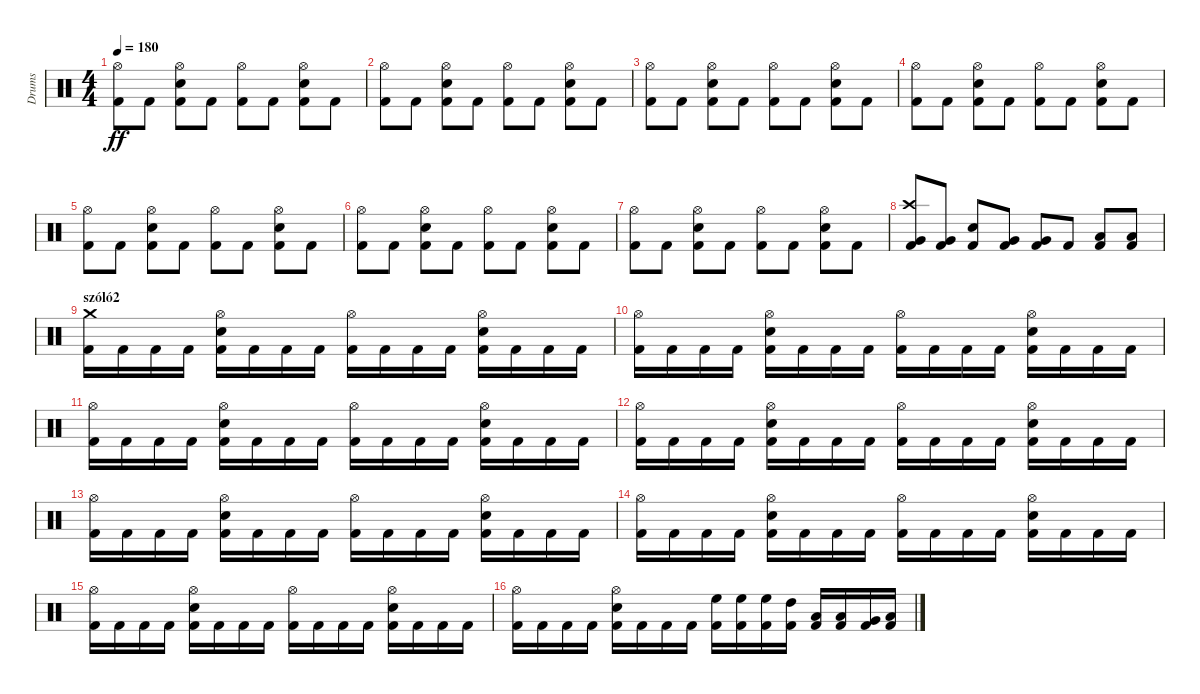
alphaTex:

\track ("Drums" "Drums") {instrument percussion}
\staff {score}
\articulation defaults
\ts (4 4)
\tempo 180
\clef neutral
\ks c
("Hi-Hat (open)" "Kick (hit) 2").8{dy ff} "Kick (hit) 2".8 ("Hi-Hat (open)" "Snare (hit) 2" "Kick (hit) 2").8 "Kick (hit) 2".8 ("Hi-Hat (open)" "Kick (hit) 2").8 "Kick (hit) 2".8 ("Hi-Hat (open)" "Snare (hit) 2" "Kick (hit) 2").8 "Kick (hit) 2".8 |
("Hi-Hat (open)" "Kick (hit) 2").8 "Kick (hit) 2".8 ("Hi-Hat (open)" "Snare (hit) 2" "Kick (hit) 2").8 "Kick (hit) 2".8 ("Hi-Hat (open)" "Kick (hit) 2").8 "Kick (hit) 2".8 ("Hi-Hat (open)" "Snare (hit) 2" "Kick (hit) 2").8 "Kick (hit) 2".8 |
("Hi-Hat (open)" "Kick (hit) 2").8 "Kick (hit) 2".8 ("Hi-Hat (open)" "Snare (hit) 2" "Kick (hit) 2").8 "Kick (hit) 2".8 ("Hi-Hat (open)" "Kick (hit) 2").8 "Kick (hit) 2".8 ("Hi-Hat (open)" "Snare (hit) 2" "Kick (hit) 2").8 "Kick (hit) 2".8 |
("Hi-Hat (open)" "Kick (hit) 2").8 "Kick (hit) 2".8 ("Hi-Hat (open)" "Snare (hit) 2" "Kick (hit) 2").8 "Kick (hit) 2".8 ("Hi-Hat (open)" "Kick (hit) 2").8 "Kick (hit) 2".8 ("Hi-Hat (open)" "Snare (hit) 2" "Kick (hit) 2").8 "Kick (hit) 2".8 |
("Hi-Hat (open)" "Kick (hit) 2").8 "Kick (hit) 2".8 ("Hi-Hat (open)" "Snare (hit) 2" "Kick (hit) 2").8 "Kick (hit) 2".8 ("Hi-Hat (open)" "Kick (hit) 2").8 "Kick (hit) 2".8 ("Hi-Hat (open)" "Snare (hit) 2" "Kick (hit) 2").8 "Kick (hit) 2".8 |
("Hi-Hat (open)" "Kick (hit) 2").8 "Kick (hit) 2".8 ("Hi-Hat (open)" "Snare (hit) 2" "Kick (hit) 2").8 "Kick (hit) 2".8 ("Hi-Hat (open)" "Kick (hit) 2").8 "Kick (hit) 2".8 ("Hi-Hat (open)" "Snare (hit) 2" "Kick (hit) 2").8 "Kick (hit) 2".8 |
("Hi-Hat (open)" "Kick (hit) 2").8 "Kick (hit) 2".8 ("Hi-Hat (open)" "Snare (hit) 2" "Kick (hit) 2").8 "Kick (hit) 2".8 ("Hi-Hat (open)" "Kick (hit) 2").8 "Kick (hit) 2".8 ("Hi-Hat (open)" "Snare (hit) 2" "Kick (hit) 2").8 "Kick (hit) 2".8 |
("Crash high (hit)" "Very Low Tom (hit)" "Kick (hit) 2").8 ("Very Low Tom (hit)" "Kick (hit) 2").8 ("Snare (hit) 2" "Kick (hit) 2").8 ("Very Low Tom (hit)" "Kick (hit) 2").8 ("Very Low Tom (hit)" "Kick (hit) 2").8 "Kick (hit) 2".8 ("Low Floor Tom (hit)" "Kick (hit) 2").8 ("Low Floor Tom (hit)" "Kick (hit) 2").8 |
\section ("" "szóló2")
("Crash medium (hit)" "Kick (hit) 2").16 "Kick (hit) 2".16 "Kick (hit) 2".16 "Kick (hit) 2".16 ("Hi-Hat (open)" "Snare (hit) 2" "Kick (hit) 2").16 "Kick (hit) 2".16 "Kick (hit) 2".16 "Kick (hit) 2".16 ("Hi-Hat (open)" "Kick (hit) 2").16 "Kick (hit) 2".16 "Kick (hit) 2".16 "Kick (hit) 2".16 ("Hi-Hat (open)" "Snare (hit) 2" "Kick (hit) 2").16 "Kick (hit) 2".16 "Kick (hit) 2".16 "Kick (hit) 2".16 |
("Hi-Hat (open)" "Kick (hit) 2").16 "Kick (hit) 2".16 "Kick (hit) 2".16 "Kick (hit) 2".16 ("Hi-Hat (open)" "Snare (hit) 2" "Kick (hit) 2").16 "Kick (hit) 2".16 "Kick (hit) 2".16 "Kick (hit) 2".16 ("Hi-Hat (open)" "Kick (hit) 2").16 "Kick (hit) 2".16 "Kick (hit) 2".16 "Kick (hit) 2".16 ("Hi-Hat (open)" "Snare (hit) 2" "Kick (hit) 2").16 "Kick (hit) 2".16 "Kick (hit) 2".16 "Kick (hit) 2".16 |
("Hi-Hat (open)" "Kick (hit) 2").16 "Kick (hit) 2".16 "Kick (hit) 2".16 "Kick (hit) 2".16 ("Hi-Hat (open)" "Snare (hit) 2" "Kick (hit) 2").16 "Kick (hit) 2".16 "Kick (hit) 2".16 "Kick (hit) 2".16 ("Hi-Hat (open)" "Kick (hit) 2").16 "Kick (hit) 2".16 "Kick (hit) 2".16 "Kick (hit) 2".16 ("Hi-Hat (open)" "Snare (hit) 2" "Kick (hit) 2").16 "Kick (hit) 2".16 "Kick (hit) 2".16 "Kick (hit) 2".16 |
("Hi-Hat (open)" "Kick (hit) 2").16 "Kick (hit) 2".16 "Kick (hit) 2".16 "Kick (hit) 2".16 ("Hi-Hat (open)" "Snare (hit) 2" "Kick (hit) 2").16 "Kick (hit) 2".16 "Kick (hit) 2".16 "Kick (hit) 2".16 ("Hi-Hat (open)" "Kick (hit) 2").16 "Kick (hit) 2".16 "Kick (hit) 2".16 "Kick (hit) 2".16 ("Hi-Hat (open)" "Snare (hit) 2" "Kick (hit) 2").16 "Kick (hit) 2".16 "Kick (hit) 2".16 "Kick (hit) 2".16 |
("Hi-Hat (open)" "Kick (hit) 2").16 "Kick (hit) 2".16 "Kick (hit) 2".16 "Kick (hit) 2".16 ("Hi-Hat (open)" "Snare (hit) 2" "Kick (hit) 2").16 "Kick (hit) 2".16 "Kick (hit) 2".16 "Kick (hit) 2".16 ("Hi-Hat (open)" "Kick (hit) 2").16 "Kick (hit) 2".16 "Kick (hit) 2".16 "Kick (hit) 2".16 ("Hi-Hat (open)" "Snare (hit) 2" "Kick (hit) 2").16 "Kick (hit) 2".16 "Kick (hit) 2".16 "Kick (hit) 2".16 |
("Hi-Hat (open)" "Kick (hit) 2").16 "Kick (hit) 2".16 "Kick (hit) 2".16 "Kick (hit) 2".16 ("Hi-Hat (open)" "Snare (hit) 2" "Kick (hit) 2").16 "Kick (hit) 2".16 "Kick (hit) 2".16 "Kick (hit) 2".16 ("Hi-Hat (open)" "Kick (hit) 2").16 "Kick (hit) 2".16 "Kick (hit) 2".16 "Kick (hit) 2".16 ("Hi-Hat (open)" "Snare (hit) 2" "Kick (hit) 2").16 "Kick (hit) 2".16 "Kick (hit) 2".16 "Kick (hit) 2".16 |
("Hi-Hat (open)" "Kick (hit) 2").16 "Kick (hit) 2".16 "Kick (hit) 2".16 "Kick (hit) 2".16 ("Hi-Hat (open)" "Snare (hit) 2" "Kick (hit) 2").16 "Kick (hit) 2".16 "Kick (hit) 2".16 "Kick (hit) 2".16 ("Hi-Hat (open)" "Kick (hit) 2").16 "Kick (hit) 2".16 "Kick (hit) 2".16 "Kick (hit) 2".16 ("Hi-Hat (open)" "Snare (hit) 2" "Kick (hit) 2").16 "Kick (hit) 2".16 "Kick (hit) 2".16 "Kick (hit) 2".16 |
("Hi-Hat (open)" "Kick (hit) 2").16 "Kick (hit) 2".16 "Kick (hit) 2".16 "Kick (hit) 2".16 ("Hi-Hat (open)" "Snare (hit) 2" "Kick (hit) 2").16 "Kick (hit) 2".16 "Kick (hit) 2".16 "Kick (hit) 2".16 ("High Floor Tom (hit)" "Kick (hit) 2").16 ("High Floor Tom (hit)" "Kick (hit) 2").16 ("High Floor Tom (hit)" "Kick (hit) 2").16 ("High Tom (hit)" "Kick (hit) 2").16 ("Low Tom (hit)" "Kick (hit) 2").16 ("Low Tom (hit)" "Kick (hit) 2").16 ("Very Low Tom (hit)" "Kick (hit) 2").16 ("Low Floor Tom (hit)" "Kick (hit) 2").16
